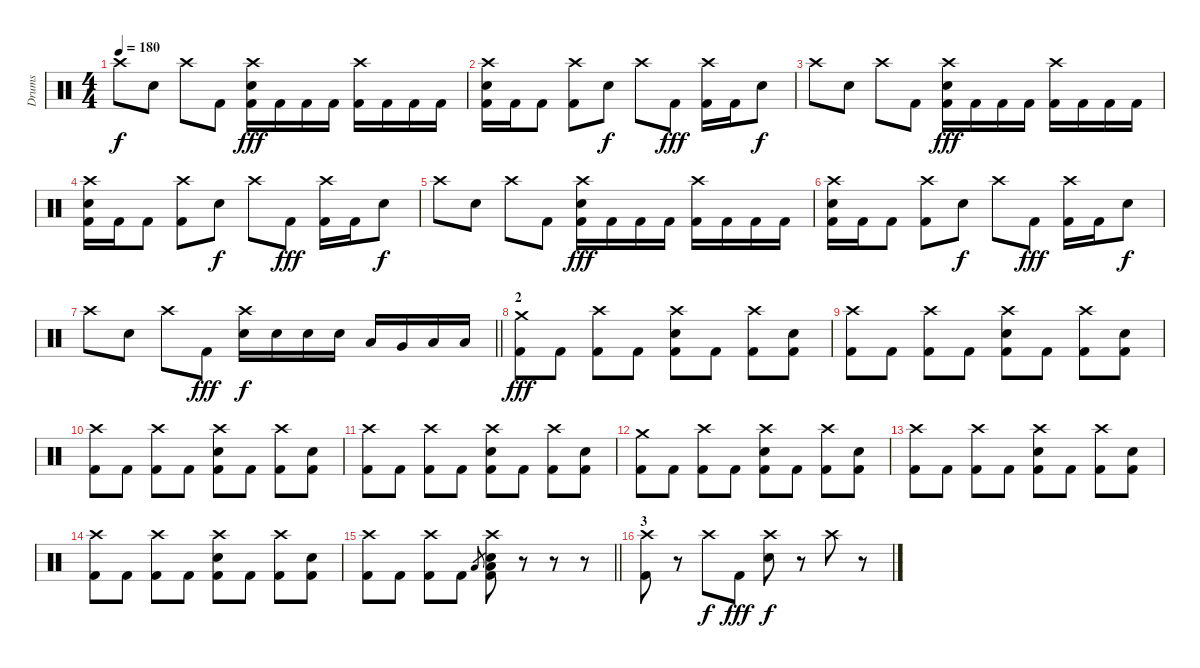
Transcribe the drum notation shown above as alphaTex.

\track ("Drums" "Drums") {instrument percussion}
\staff {score}
\articulation defaults
\ts (4 4)
\tempo 180
\clef neutral
\ks c "Crash high (hit)".8{dy f} "Electric Snare (hit)".8 "Crash high (hit)".8 "Kick (hit) 2".8
("Crash high (hit)" "Electric Snare (hit)" "Kick (hit) 2").16{dy fff} "Kick (hit) 2".16 "Kick (hit) 2".16 "Kick (hit) 2".16 ("Crash high (hit)" "Kick (hit) 2").16 "Kick (hit) 2".16 "Kick (hit) 2".16 "Kick (hit) 2".16 |
("Crash high (hit)" "Electric Snare (hit)" "Kick (hit) 2").16 "Kick (hit) 2".16 "Kick (hit) 2".8 ("Crash high (hit)" "Kick (hit) 2").8 "Electric Snare (hit)".8{dy f} "Crash high (hit)".8 "Kick (hit) 2".8{dy fff} ("Crash high (hit)" "Kick (hit) 2").16 "Kick (hit) 2".16 "Electric Snare (hit)".8{dy f} |
"Crash high (hit)".8 "Electric Snare (hit)".8 "Crash high (hit)".8 "Kick (hit) 2".8 ("Crash high (hit)" "Electric Snare (hit)" "Kick (hit) 2").16{dy fff} "Kick (hit) 2".16 "Kick (hit) 2".16 "Kick (hit) 2".16 ("Crash high (hit)" "Kick (hit) 2").16 "Kick (hit) 2".16 "Kick (hit) 2".16 "Kick (hit) 2".16 |
("Crash high (hit)" "Electric Snare (hit)" "Kick (hit) 2").16 "Kick (hit) 2".16 "Kick (hit) 2".8 ("Crash high (hit)" "Kick (hit) 2").8 "Electric Snare (hit)".8{dy f} "Crash high (hit)".8 "Kick (hit) 2".8{dy fff} ("Crash high (hit)" "Kick (hit) 2").16 "Kick (hit) 2".16 "Electric Snare (hit)".8{dy f} |
"Crash high (hit)".8 "Electric Snare (hit)".8 "Crash high (hit)".8 "Kick (hit) 2".8 ("Crash high (hit)" "Electric Snare (hit)" "Kick (hit) 2").16{dy fff} "Kick (hit) 2".16 "Kick (hit) 2".16 "Kick (hit) 2".16 ("Crash high (hit)" "Kick (hit) 2").16 "Kick (hit) 2".16 "Kick (hit) 2".16 "Kick (hit) 2".16 |
("Crash high (hit)" "Electric Snare (hit)" "Kick (hit) 2").16 "Kick (hit) 2".16 "Kick (hit) 2".8 ("Crash high (hit)" "Kick (hit) 2").8 "Electric Snare (hit)".8{dy f} "Crash high (hit)".8 "Kick (hit) 2".8{dy fff} ("Crash high (hit)" "Kick (hit) 2").16 "Kick (hit) 2".16 "Electric Snare (hit)".8{dy f} |
\barLineRight lightlight "Crash high (hit)".8 "Electric Snare (hit)".8 "Crash high (hit)".8 "Kick (hit) 2".8{dy fff}
("Crash high (hit)" "Electric Snare (hit)").16{dy f} "Electric Snare (hit)".16 "Electric Snare (hit)".16 "Electric Snare (hit)".16 "Low Tom (hit)".16 "Very Low Tom (hit)".16 "Low Floor Tom (hit)".16 "Low Floor Tom (hit)".16 |
\section ("" "2")
("Crash medium (hit)" "Kick (hit) 2").8{dy fff} "Kick (hit) 2".8 ("Crash high (hit)" "Kick (hit) 2").8 "Kick (hit) 2".8 ("Crash high (hit)" "Electric Snare (hit)" "Kick (hit) 2").8 "Kick (hit) 2".8 ("Crash high (hit)" "Kick (hit) 2").8 ("Electric Snare (hit)" "Kick (hit) 2").8 |
("Crash high (hit)" "Kick (hit) 2").8 "Kick (hit) 2".8 ("Crash high (hit)" "Kick (hit) 2").8 "Kick (hit) 2".8 ("Crash high (hit)" "Electric Snare (hit)" "Kick (hit) 2").8 "Kick (hit) 2".8 ("Crash high (hit)" "Kick (hit) 2").8 ("Electric Snare (hit)" "Kick (hit) 2").8 |
("Crash high (hit)" "Kick (hit) 2").8 "Kick (hit) 2".8 ("Crash high (hit)" "Kick (hit) 2").8 "Kick (hit) 2".8 ("Crash high (hit)" "Electric Snare (hit)" "Kick (hit) 2").8 "Kick (hit) 2".8 ("Crash high (hit)" "Kick (hit) 2").8 ("Electric Snare (hit)" "Kick (hit) 2").8 |
("Crash high (hit)" "Kick (hit) 2").8 "Kick (hit) 2".8 ("Crash high (hit)" "Kick (hit) 2").8 "Kick (hit) 2".8 ("Crash high (hit)" "Electric Snare (hit)" "Kick (hit) 2").8 "Kick (hit) 2".8 ("Crash high (hit)" "Kick (hit) 2").8 ("Electric Snare (hit)" "Kick (hit) 2").8 |
("Crash medium (hit)" "Kick (hit) 2").8 "Kick (hit) 2".8 ("Crash high (hit)" "Kick (hit) 2").8 "Kick (hit) 2".8 ("Crash high (hit)" "Electric Snare (hit)" "Kick (hit) 2").8 "Kick (hit) 2".8 ("Crash high (hit)" "Kick (hit) 2").8 ("Electric Snare (hit)" "Kick (hit) 2").8 |
("Crash high (hit)" "Kick (hit) 2").8 "Kick (hit) 2".8 ("Crash high (hit)" "Kick (hit) 2").8 "Kick (hit) 2".8 ("Crash high (hit)" "Electric Snare (hit)" "Kick (hit) 2").8 "Kick (hit) 2".8 ("Crash high (hit)" "Kick (hit) 2").8 ("Electric Snare (hit)" "Kick (hit) 2").8 |
("Crash high (hit)" "Kick (hit) 2").8 "Kick (hit) 2".8 ("Crash high (hit)" "Kick (hit) 2").8 "Kick (hit) 2".8 ("Crash high (hit)" "Electric Snare (hit)" "Kick (hit) 2").8 "Kick (hit) 2".8 ("Crash high (hit)" "Kick (hit) 2").8 ("Electric Snare (hit)" "Kick (hit) 2").8 |
\barLineRight lightlight
("Crash high (hit)" "Kick (hit) 2").8 "Kick (hit) 2".8 ("Crash high (hit)" "Kick (hit) 2").8 "Kick (hit) 2".8 "Low Floor Tom (hit)".8{gr} ("Crash high (hit)" "Low Floor Tom (hit)" "Electric Snare (hit)" "Kick (hit) 2").8 r.8 r.8 r.8 |
\section ("" "3")
("Crash high (hit)" "Kick (hit) 2").8 r.8 "Crash high (hit)".8{dy f} "Kick (hit) 2".8{dy fff} ("Crash high (hit)" "Electric Snare (hit)").8{dy f} r.8 "Crash high (hit)".8 r.8
